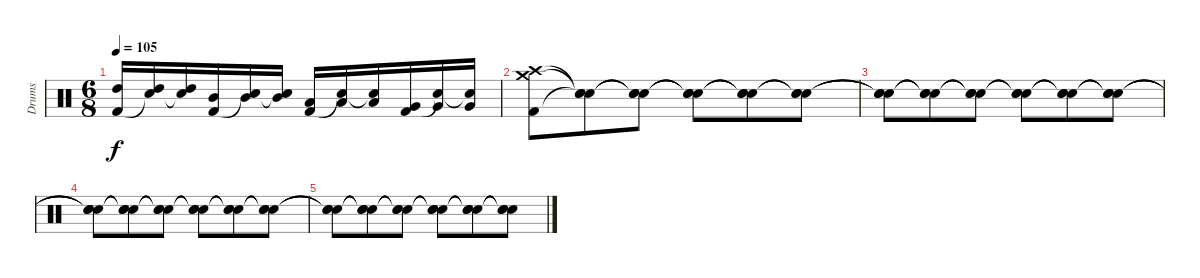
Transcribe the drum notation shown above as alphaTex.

\track ("Drums" "Drums") {instrument percussion}
\staff {score}
\articulation defaults
\ts (6 8)
\tempo 105
\clef neutral
\ks c
("High Tom (hit)" "Kick (hit) 2").16{dy f} ("High Tom (hit)" "Snare (hit)"{t}).16 ("High Tom (hit)" "Snare (hit)"{t}).16 ("Mid Tom (hit)" "Kick (hit) 2").16 ("Mid Tom (hit)" "Snare (hit)"{t}).16 ("Mid Tom (hit)" "Snare (hit)"{t}).16 ("Low Tom (hit)" "Kick (hit) 2").16 ("Low Tom (hit)" "Snare (hit)"{t}).16 ("Low Tom (hit)" "Snare (hit)"{t}).16 ("Very Low Tom (hit)" "Kick (hit) 2").16 ("Very Low Tom (hit)" "Snare (hit)"{t}).16 ("Very Low Tom (hit)" "Snare (hit)"{t}).16 |
("Crash high (hit)" "Crash medium (hit)" "Kick (hit) 2").8 ("Snare (hit)"{t} "Snare (hit)"{t} "Snare (hit)"{t}).8 ("Snare (hit)"{t} "Snare (hit)"{t} "Snare (hit)"{t}).8 ("Snare (hit)"{t} "Snare (hit)"{t} "Snare (hit)"{t}).8 ("Snare (hit)"{t} "Snare (hit)"{t} "Snare (hit)"{t}).8 ("Snare (hit)"{t} "Snare (hit)"{t} "Snare (hit)"{t}).8 |
("Snare (hit)"{t} "Snare (hit)"{t} "Snare (hit)"{t}).8 ("Snare (hit)"{t} "Snare (hit)"{t} "Snare (hit)"{t}).8 ("Snare (hit)"{t} "Snare (hit)"{t} "Snare (hit)"{t}).8 ("Snare (hit)"{t} "Snare (hit)"{t} "Snare (hit)"{t}).8 ("Snare (hit)"{t} "Snare (hit)"{t} "Snare (hit)"{t}).8 ("Snare (hit)"{t} "Snare (hit)"{t} "Snare (hit)"{t}).8 |
("Snare (hit)"{t} "Snare (hit)"{t} "Snare (hit)"{t}).8 ("Snare (hit)"{t} "Snare (hit)"{t} "Snare (hit)"{t}).8 ("Snare (hit)"{t} "Snare (hit)"{t} "Snare (hit)"{t}).8 ("Snare (hit)"{t} "Snare (hit)"{t} "Snare (hit)"{t}).8 ("Snare (hit)"{t} "Snare (hit)"{t} "Snare (hit)"{t}).8 ("Snare (hit)"{t} "Snare (hit)"{t} "Snare (hit)"{t}).8 |
("Snare (hit)"{t} "Snare (hit)"{t} "Snare (hit)"{t}).8 ("Snare (hit)"{t} "Snare (hit)"{t} "Snare (hit)"{t}).8 ("Snare (hit)"{t} "Snare (hit)"{t} "Snare (hit)"{t}).8 ("Snare (hit)"{t} "Snare (hit)"{t} "Snare (hit)"{t}).8 ("Snare (hit)"{t} "Snare (hit)"{t} "Snare (hit)"{t}).8 ("Snare (hit)"{t} "Snare (hit)"{t} "Snare (hit)"{t}).8
